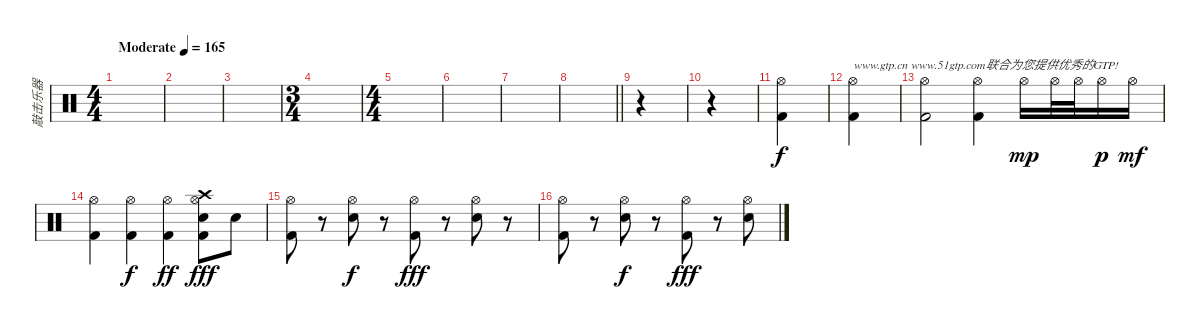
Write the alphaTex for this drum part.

\track ("敲击乐器" "敲击乐器") {instrument percussion}
\staff {score}
\articulation defaults
\ts (4 4)
\tempo (165 "Moderate")
\clef neutral
\ks c
|
|
|
\ts (3 4)
|
\ts (4 4)
|
|
|
\barLineRight lightlight
|
r.4 |
r.4 |
("Hi-Hat (open)" "Kick (hit) 2").4 |
("Hi-Hat (open)" "Kick (hit) 2").4{txt "www.gtp.cn www.51gtp.com联合为您提供优秀的GTP!"} |
("Hi-Hat (open)" "Kick (hit) 2").2 ("Hi-Hat (open)" "Kick (hit) 2").4 "Hi-Hat (open)".16{dy mp} "Hi-Hat (open)".32 "Hi-Hat (open)".32 "Hi-Hat (open)".16{dy p} "Hi-Hat (open)".16{dy mf} |
("Hi-Hat (open)" "Kick (hit) 2").4 ("Hi-Hat (open)" "Kick (hit) 2").4{dy f} ("Hi-Hat (open)" "Kick (hit) 2").4{dy ff} ("Hi-Hat (open)" "Kick (hit) 2" "Snare (hit) 2" "Crash high (hit)").8{dy fff} "Snare (hit) 2".8 |
("Kick (hit) 2" "Hi-Hat (open)").8 r.8 ("Snare (hit) 2" "Hi-Hat (open)").8{dy f} r.8 ("Kick (hit) 2" "Hi-Hat (open)").8{dy fff} r.8 ("Snare (hit) 2" "Hi-Hat (open)").8 r.8 |
("Kick (hit) 2" "Hi-Hat (open)").8 r.8 ("Snare (hit) 2" "Hi-Hat (open)").8{dy f} r.8 ("Kick (hit) 2" "Hi-Hat (open)").8{dy fff} r.8 ("Snare (hit) 2" "Hi-Hat (open)").8
